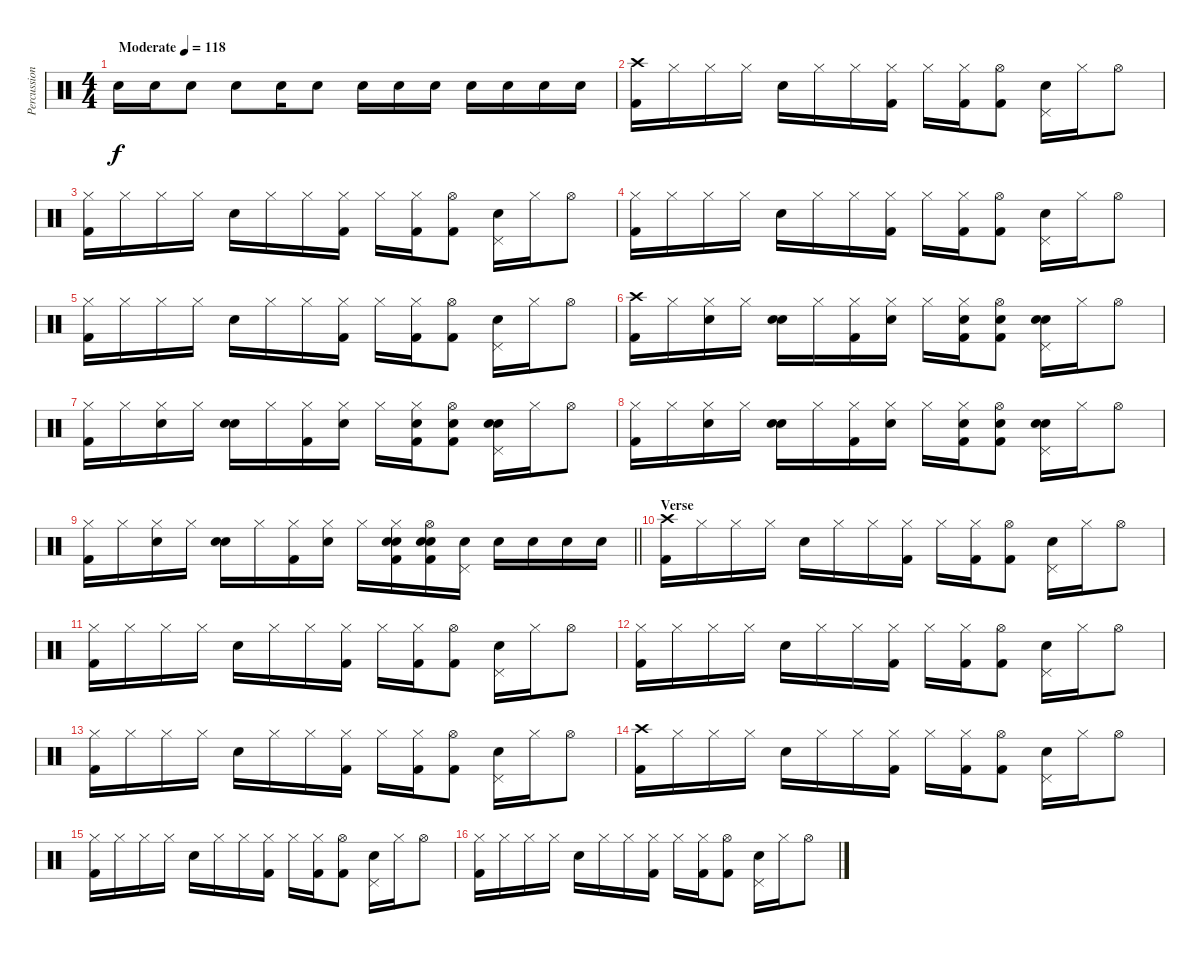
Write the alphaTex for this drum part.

\track ("Percussion" "Percussion") {instrument percussion}
\staff {score}
\articulation defaults
\ts (4 4)
\tempo (118 "Moderate")
\clef neutral
\ks c "Electric Snare (hit)".16{dy f} "Electric Snare (hit)".16 "Electric Snare (hit)".8 "Electric Snare (hit)".8 "Electric Snare (hit)".16 "Electric Snare (hit)".8 "Electric Snare (hit)".16 "Electric Snare (hit)".16 "Electric Snare (hit)".16 "Electric Snare (hit)".16 "Electric Snare (hit)".16 "Electric Snare (hit)".16 "Electric Snare (hit)".16
|
("Crash high (hit)" "Kick (hit) 2").16 "Hi-Hat (closed)".16 "Hi-Hat (closed)".16 "Hi-Hat (closed)".16 "Electric Snare (hit)".16 "Hi-Hat (closed)".16 "Hi-Hat (closed)".16 ("Hi-Hat (closed)" "Kick (hit) 2").16 "Hi-Hat (closed)".16 ("Hi-Hat (closed)" "Kick (hit) 2").16 ("Hi-Hat (open)" "Kick (hit) 2").8 ("Pedal Hi-Hat (hit)" "Electric Snare (hit)").16 "Hi-Hat (closed)".16 "Hi-Hat (open)".8 |
("Hi-Hat (closed)" "Kick (hit) 2").16 "Hi-Hat (closed)".16 "Hi-Hat (closed)".16 "Hi-Hat (closed)".16 "Electric Snare (hit)".16 "Hi-Hat (closed)".16 "Hi-Hat (closed)".16 ("Hi-Hat (closed)" "Kick (hit) 2").16 "Hi-Hat (closed)".16 ("Hi-Hat (closed)" "Kick (hit) 2").16 ("Hi-Hat (open)" "Kick (hit) 2").8 ("Pedal Hi-Hat (hit)" "Electric Snare (hit)").16 "Hi-Hat (closed)".16 "Hi-Hat (open)".8 |
("Hi-Hat (closed)" "Kick (hit) 2").16 "Hi-Hat (closed)".16 "Hi-Hat (closed)".16 "Hi-Hat (closed)".16 "Electric Snare (hit)".16 "Hi-Hat (closed)".16 "Hi-Hat (closed)".16 ("Hi-Hat (closed)" "Kick (hit) 2").16 "Hi-Hat (closed)".16 ("Hi-Hat (closed)" "Kick (hit) 2").16 ("Hi-Hat (open)" "Kick (hit) 2").8 ("Pedal Hi-Hat (hit)" "Electric Snare (hit)").16 "Hi-Hat (closed)".16 "Hi-Hat (open)".8 |
("Hi-Hat (closed)" "Kick (hit) 2").16 "Hi-Hat (closed)".16 "Hi-Hat (closed)".16 "Hi-Hat (closed)".16 "Electric Snare (hit)".16 "Hi-Hat (closed)".16 "Hi-Hat (closed)".16 ("Hi-Hat (closed)" "Kick (hit) 2").16 "Hi-Hat (closed)".16 ("Hi-Hat (closed)" "Kick (hit) 2").16 ("Hi-Hat (open)" "Kick (hit) 2").8 ("Pedal Hi-Hat (hit)" "Electric Snare (hit)").16 "Hi-Hat (closed)".16 "Hi-Hat (open)".8 |
("Crash high (hit)" "Kick (hit) 2").16 "Hi-Hat (closed)".16 ("Hi-Hat (closed)" "Snare (hit) 2").16 "Hi-Hat (closed)".16 ("Electric Snare (hit)" "Snare (hit) 2").16 "Hi-Hat (closed)".16 ("Hi-Hat (closed)" "Kick (hit) 2").16 ("Hi-Hat (closed)" "Snare (hit) 2").16 "Hi-Hat (closed)".16 ("Hi-Hat (closed)" "Snare (hit) 2" "Kick (hit) 2").16 ("Hi-Hat (open)" "Snare (hit) 2" "Kick (hit) 2").8 ("Pedal Hi-Hat (hit)" "Electric Snare (hit)" "Snare (hit) 2").16 "Hi-Hat (closed)".16 "Hi-Hat (open)".8 |
("Hi-Hat (closed)" "Kick (hit) 2").16 "Hi-Hat (closed)".16 ("Hi-Hat (closed)" "Snare (hit) 2").16 "Hi-Hat (closed)".16 ("Electric Snare (hit)" "Snare (hit) 2").16 "Hi-Hat (closed)".16 ("Hi-Hat (closed)" "Kick (hit) 2").16 ("Hi-Hat (closed)" "Snare (hit) 2").16 "Hi-Hat (closed)".16 ("Hi-Hat (closed)" "Snare (hit) 2" "Kick (hit) 2").16 ("Hi-Hat (open)" "Snare (hit) 2" "Kick (hit) 2").8 ("Pedal Hi-Hat (hit)" "Electric Snare (hit)" "Snare (hit) 2").16 "Hi-Hat (closed)".16 "Hi-Hat (open)".8 |
("Hi-Hat (closed)" "Kick (hit) 2").16 "Hi-Hat (closed)".16 ("Hi-Hat (closed)" "Snare (hit) 2").16 "Hi-Hat (closed)".16 ("Electric Snare (hit)" "Snare (hit) 2").16 "Hi-Hat (closed)".16 ("Hi-Hat (closed)" "Kick (hit) 2").16 ("Hi-Hat (closed)" "Snare (hit) 2").16 "Hi-Hat (closed)".16 ("Hi-Hat (closed)" "Snare (hit) 2" "Kick (hit) 2").16 ("Hi-Hat (open)" "Snare (hit) 2" "Kick (hit) 2").8 ("Pedal Hi-Hat (hit)" "Electric Snare (hit)" "Snare (hit) 2").16 "Hi-Hat (closed)".16 "Hi-Hat (open)".8 |
\barLineRight lightlight
("Hi-Hat (closed)" "Kick (hit) 2").16 "Hi-Hat (closed)".16 ("Hi-Hat (closed)" "Snare (hit) 2").16 "Hi-Hat (closed)".16 ("Electric Snare (hit)" "Snare (hit) 2").16 "Hi-Hat (closed)".16 ("Hi-Hat (closed)" "Kick (hit) 2").16 ("Hi-Hat (closed)" "Snare (hit) 2").16 "Hi-Hat (closed)".16 ("Hi-Hat (closed)" "Electric Snare (hit)" "Snare (hit) 2" "Kick (hit) 2").16 ("Hi-Hat (open)" "Electric Snare (hit)" "Snare (hit) 2" "Kick (hit) 2").16 ("Pedal Hi-Hat (hit)" "Electric Snare (hit)").16 "Electric Snare (hit)".16 "Electric Snare (hit)".16 "Electric Snare (hit)".16 "Electric Snare (hit)".16 |
\section ("" "Verse")
("Crash high (hit)" "Kick (hit) 2").16 "Hi-Hat (closed)".16 "Hi-Hat (closed)".16 "Hi-Hat (closed)".16 "Electric Snare (hit)".16 "Hi-Hat (closed)".16 "Hi-Hat (closed)".16 ("Hi-Hat (closed)" "Kick (hit) 2").16 "Hi-Hat (closed)".16 ("Hi-Hat (closed)" "Kick (hit) 2").16 ("Hi-Hat (open)" "Kick (hit) 2").8 ("Pedal Hi-Hat (hit)" "Electric Snare (hit)").16 "Hi-Hat (closed)".16 "Hi-Hat (open)".8 |
("Hi-Hat (closed)" "Kick (hit) 2").16 "Hi-Hat (closed)".16 "Hi-Hat (closed)".16 "Hi-Hat (closed)".16 "Electric Snare (hit)".16 "Hi-Hat (closed)".16 "Hi-Hat (closed)".16 ("Hi-Hat (closed)" "Kick (hit) 2").16 "Hi-Hat (closed)".16 ("Hi-Hat (closed)" "Kick (hit) 2").16 ("Hi-Hat (open)" "Kick (hit) 2").8 ("Pedal Hi-Hat (hit)" "Electric Snare (hit)").16 "Hi-Hat (closed)".16 "Hi-Hat (open)".8 |
("Hi-Hat (closed)" "Kick (hit) 2").16 "Hi-Hat (closed)".16 "Hi-Hat (closed)".16 "Hi-Hat (closed)".16 "Electric Snare (hit)".16 "Hi-Hat (closed)".16 "Hi-Hat (closed)".16 ("Hi-Hat (closed)" "Kick (hit) 2").16 "Hi-Hat (closed)".16 ("Hi-Hat (closed)" "Kick (hit) 2").16 ("Hi-Hat (open)" "Kick (hit) 2").8 ("Pedal Hi-Hat (hit)" "Electric Snare (hit)").16 "Hi-Hat (closed)".16 "Hi-Hat (open)".8 |
("Hi-Hat (closed)" "Kick (hit) 2").16 "Hi-Hat (closed)".16 "Hi-Hat (closed)".16 "Hi-Hat (closed)".16 "Electric Snare (hit)".16 "Hi-Hat (closed)".16 "Hi-Hat (closed)".16 ("Hi-Hat (closed)" "Kick (hit) 2").16 "Hi-Hat (closed)".16 ("Hi-Hat (closed)" "Kick (hit) 2").16 ("Hi-Hat (open)" "Kick (hit) 2").8 ("Pedal Hi-Hat (hit)" "Electric Snare (hit)").16 "Hi-Hat (closed)".16 "Hi-Hat (open)".8 |
("Crash high (hit)" "Kick (hit) 2").16 "Hi-Hat (closed)".16 "Hi-Hat (closed)".16 "Hi-Hat (closed)".16 "Electric Snare (hit)".16 "Hi-Hat (closed)".16 "Hi-Hat (closed)".16 ("Hi-Hat (closed)" "Kick (hit) 2").16 "Hi-Hat (closed)".16 ("Hi-Hat (closed)" "Kick (hit) 2").16 ("Hi-Hat (open)" "Kick (hit) 2").8 ("Pedal Hi-Hat (hit)" "Electric Snare (hit)").16 "Hi-Hat (closed)".16 "Hi-Hat (open)".8 |
("Hi-Hat (closed)" "Kick (hit) 2").16 "Hi-Hat (closed)".16 "Hi-Hat (closed)".16 "Hi-Hat (closed)".16 "Electric Snare (hit)".16 "Hi-Hat (closed)".16 "Hi-Hat (closed)".16 ("Hi-Hat (closed)" "Kick (hit) 2").16 "Hi-Hat (closed)".16 ("Hi-Hat (closed)" "Kick (hit) 2").16 ("Hi-Hat (open)" "Kick (hit) 2").8 ("Pedal Hi-Hat (hit)" "Electric Snare (hit)").16 "Hi-Hat (closed)".16 "Hi-Hat (open)".8 |
("Hi-Hat (closed)" "Kick (hit) 2").16 "Hi-Hat (closed)".16 "Hi-Hat (closed)".16 "Hi-Hat (closed)".16 "Electric Snare (hit)".16 "Hi-Hat (closed)".16 "Hi-Hat (closed)".16 ("Hi-Hat (closed)" "Kick (hit) 2").16 "Hi-Hat (closed)".16 ("Hi-Hat (closed)" "Kick (hit) 2").16 ("Hi-Hat (open)" "Kick (hit) 2").8 ("Pedal Hi-Hat (hit)" "Electric Snare (hit)").16 "Hi-Hat (closed)".16 "Hi-Hat (open)".8
